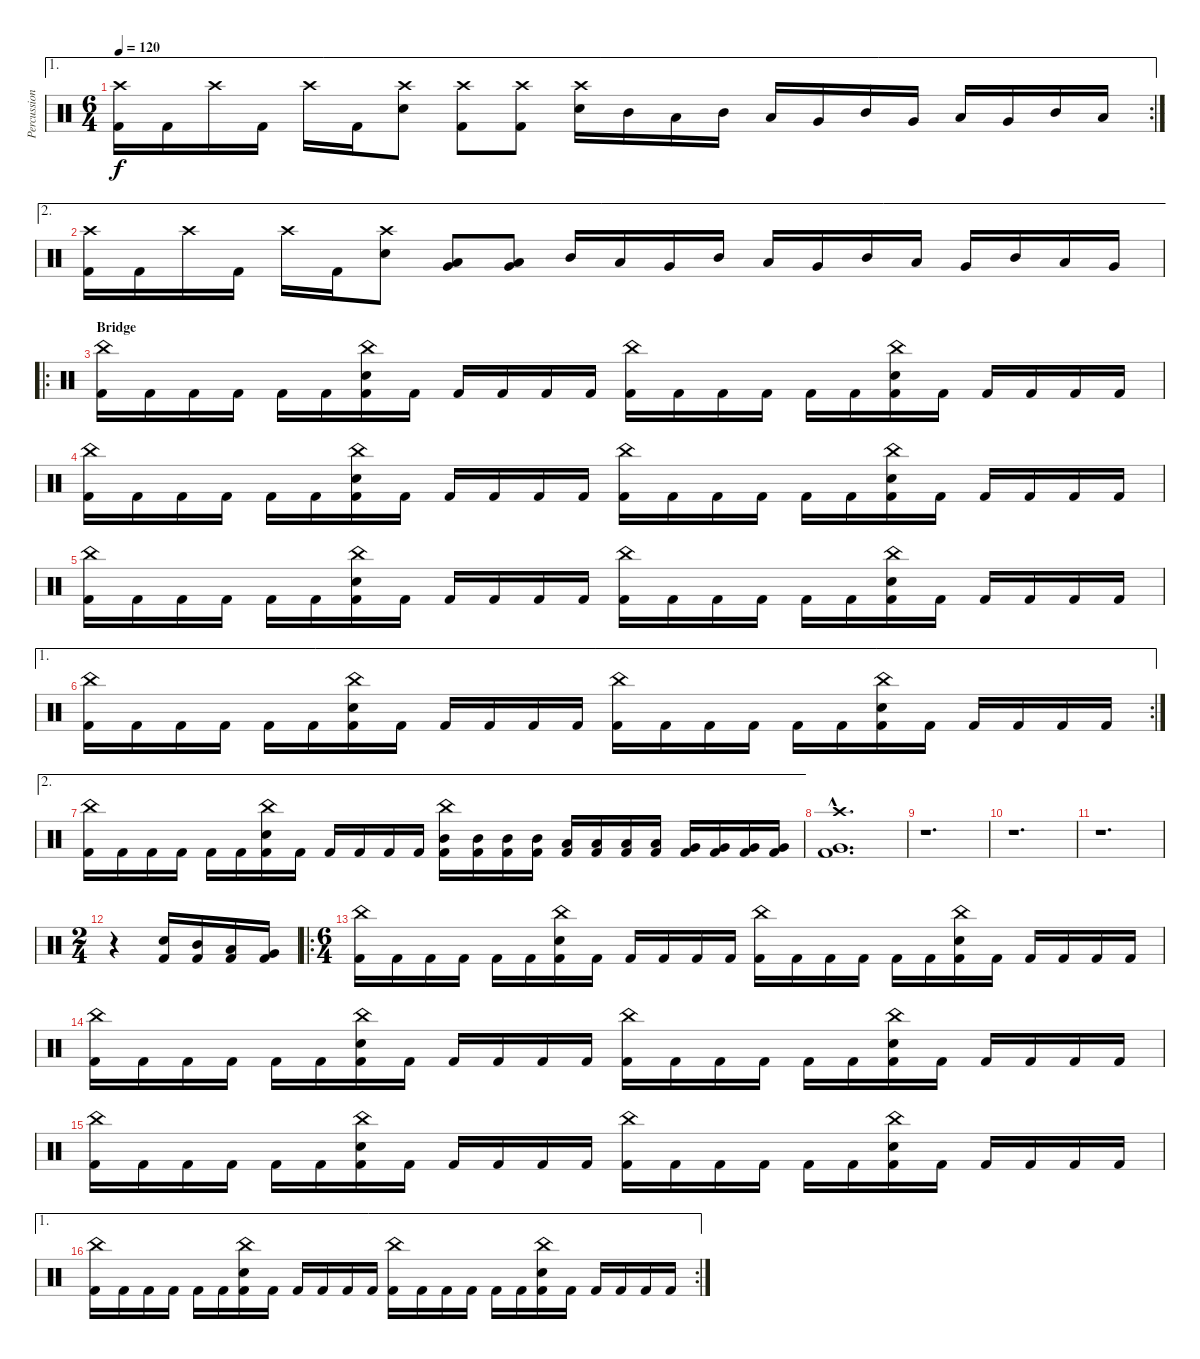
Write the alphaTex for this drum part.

\track ("Percussion" "Percussion") {instrument percussion}
\staff {score}
\articulation defaults
\ae 1
\rc 2
\ts (6 4)
\tempo 120
\clef neutral
\ks c
("Crash high (hit)" "Kick (hit) 2").16{dy f} "Kick (hit) 2".16 "Crash high (hit)".16 "Kick (hit) 2".16 "Crash high (hit)".16 "Kick (hit) 2".16 ("Crash high (hit)" "Snare (hit) 2").8 ("Crash high (hit)" "Kick (hit) 2").8 ("Crash high (hit)" "Kick (hit) 2").8 ("Crash high (hit)" "Snare (hit) 2").16 "Mid Tom (hit)".16 "Low Tom (hit)".16 "Mid Tom (hit)".16 "Low Tom (hit)".16 "Very Low Tom (hit)".16 "Mid Tom (hit)".16 "Very Low Tom (hit)".16 "Low Tom (hit)".16 "Very Low Tom (hit)".16 "Mid Tom (hit)".16 "Low Tom (hit)".16 |
\ae 2
("Crash high (hit)" "Kick (hit) 2").16 "Kick (hit) 2".16 "Crash high (hit)".16 "Kick (hit) 2".16 "Crash high (hit)".16 "Kick (hit) 2".16 ("Crash high (hit)" "Snare (hit) 2").8 ("Low Tom (hit)" "Very Low Tom (hit)").8 ("Low Tom (hit)" "Very Low Tom (hit)").8 "Mid Tom (hit)".16 "Low Tom (hit)".16 "Very Low Tom (hit)".16 "Mid Tom (hit)".16 "Low Tom (hit)".16 "Very Low Tom (hit)".16 "Mid Tom (hit)".16 "Low Tom (hit)".16 "Very Low Tom (hit)".16 "Mid Tom (hit)".16 "Low Tom (hit)".16 "Very Low Tom (hit)".16 |
\ro
\section ("" "Bridge")
("China (hit)" "Kick (hit) 2").16 "Kick (hit) 2".16 "Kick (hit) 2".16 "Kick (hit) 2".16 "Kick (hit) 2".16 "Kick (hit) 2".16 ("China (hit)" "Snare (hit) 2" "Kick (hit) 2").16 "Kick (hit) 2".16 "Kick (hit) 2".16 "Kick (hit) 2".16 "Kick (hit) 2".16 "Kick (hit) 2".16 ("China (hit)" "Kick (hit) 2").16 "Kick (hit) 2".16 "Kick (hit) 2".16 "Kick (hit) 2".16 "Kick (hit) 2".16 "Kick (hit) 2".16 ("China (hit)" "Snare (hit) 2" "Kick (hit) 2").16 "Kick (hit) 2".16 "Kick (hit) 2".16 "Kick (hit) 2".16 "Kick (hit) 2".16 "Kick (hit) 2".16 |
("China (hit)" "Kick (hit) 2").16 "Kick (hit) 2".16 "Kick (hit) 2".16 "Kick (hit) 2".16 "Kick (hit) 2".16 "Kick (hit) 2".16 ("China (hit)" "Snare (hit) 2" "Kick (hit) 2").16 "Kick (hit) 2".16 "Kick (hit) 2".16 "Kick (hit) 2".16 "Kick (hit) 2".16 "Kick (hit) 2".16 ("China (hit)" "Kick (hit) 2").16 "Kick (hit) 2".16 "Kick (hit) 2".16 "Kick (hit) 2".16 "Kick (hit) 2".16 "Kick (hit) 2".16 ("China (hit)" "Snare (hit) 2" "Kick (hit) 2").16 "Kick (hit) 2".16 "Kick (hit) 2".16 "Kick (hit) 2".16 "Kick (hit) 2".16 "Kick (hit) 2".16 |
("China (hit)" "Kick (hit) 2").16 "Kick (hit) 2".16 "Kick (hit) 2".16 "Kick (hit) 2".16 "Kick (hit) 2".16 "Kick (hit) 2".16 ("China (hit)" "Snare (hit) 2" "Kick (hit) 2").16 "Kick (hit) 2".16 "Kick (hit) 2".16 "Kick (hit) 2".16 "Kick (hit) 2".16 "Kick (hit) 2".16 ("China (hit)" "Kick (hit) 2").16 "Kick (hit) 2".16 "Kick (hit) 2".16 "Kick (hit) 2".16 "Kick (hit) 2".16 "Kick (hit) 2".16 ("China (hit)" "Snare (hit) 2" "Kick (hit) 2").16 "Kick (hit) 2".16 "Kick (hit) 2".16 "Kick (hit) 2".16 "Kick (hit) 2".16 "Kick (hit) 2".16 |
\ae 1
\rc 2
("China (hit)" "Kick (hit) 2").16 "Kick (hit) 2".16 "Kick (hit) 2".16 "Kick (hit) 2".16 "Kick (hit) 2".16 "Kick (hit) 2".16 ("China (hit)" "Snare (hit) 2" "Kick (hit) 2").16 "Kick (hit) 2".16 "Kick (hit) 2".16 "Kick (hit) 2".16 "Kick (hit) 2".16 "Kick (hit) 2".16 ("China (hit)" "Kick (hit) 2").16 "Kick (hit) 2".16 "Kick (hit) 2".16 "Kick (hit) 2".16 "Kick (hit) 2".16 "Kick (hit) 2".16 ("China (hit)" "Snare (hit) 2" "Kick (hit) 2").16 "Kick (hit) 2".16 "Kick (hit) 2".16 "Kick (hit) 2".16 "Kick (hit) 2".16 "Kick (hit) 2".16 |
\ae 2
("China (hit)" "Kick (hit) 2").16 "Kick (hit) 2".16 "Kick (hit) 2".16 "Kick (hit) 2".16 "Kick (hit) 2".16 "Kick (hit) 2".16 ("China (hit)" "Snare (hit) 2" "Kick (hit) 2").16 "Kick (hit) 2".16 "Kick (hit) 2".16 "Kick (hit) 2".16 "Kick (hit) 2".16 "Kick (hit) 2".16 ("China (hit)" "Mid Tom (hit)" "Kick (hit) 2").16 ("Mid Tom (hit)" "Kick (hit) 2").16 ("Mid Tom (hit)" "Kick (hit) 2").16 ("Mid Tom (hit)" "Kick (hit) 2").16 ("Low Tom (hit)" "Kick (hit) 2").16 ("Low Tom (hit)" "Kick (hit) 2").16 ("Low Tom (hit)" "Kick (hit) 2").16 ("Low Tom (hit)" "Kick (hit) 2").16 ("Very Low Tom (hit)" "Kick (hit) 2").16 ("Very Low Tom (hit)" "Kick (hit) 2").16 ("Very Low Tom (hit)" "Kick (hit) 2").16 ("Very Low Tom (hit)" "Kick (hit) 2").16 |
("Crash high (hit)"{hac} "Very Low Tom (hit)"{hac} "Kick (hit) 2"{hac}).1{d} |
r.1{d} |
r.1{d} |
r.1{d} |
\ts (2 4)
r.4 ("Snare (hit) 2" "Kick (hit) 2").16 ("Mid Tom (hit)" "Kick (hit) 2").16 ("Low Tom (hit)" "Kick (hit) 2").16 ("Very Low Tom (hit)" "Kick (hit) 2").16 |
\ro
\ts (6 4)
("China (hit)" "Kick (hit) 2").16 "Kick (hit) 2".16 "Kick (hit) 2".16 "Kick (hit) 2".16 "Kick (hit) 2".16 "Kick (hit) 2".16 ("China (hit)" "Snare (hit) 2" "Kick (hit) 2").16 "Kick (hit) 2".16 "Kick (hit) 2".16 "Kick (hit) 2".16 "Kick (hit) 2".16 "Kick (hit) 2".16 ("China (hit)" "Kick (hit) 2").16 "Kick (hit) 2".16 "Kick (hit) 2".16 "Kick (hit) 2".16 "Kick (hit) 2".16 "Kick (hit) 2".16 ("China (hit)" "Snare (hit) 2" "Kick (hit) 2").16 "Kick (hit) 2".16 "Kick (hit) 2".16 "Kick (hit) 2".16 "Kick (hit) 2".16 "Kick (hit) 2".16 |
("China (hit)" "Kick (hit) 2").16 "Kick (hit) 2".16 "Kick (hit) 2".16 "Kick (hit) 2".16 "Kick (hit) 2".16 "Kick (hit) 2".16 ("China (hit)" "Snare (hit) 2" "Kick (hit) 2").16 "Kick (hit) 2".16 "Kick (hit) 2".16 "Kick (hit) 2".16 "Kick (hit) 2".16 "Kick (hit) 2".16 ("China (hit)" "Kick (hit) 2").16 "Kick (hit) 2".16 "Kick (hit) 2".16 "Kick (hit) 2".16 "Kick (hit) 2".16 "Kick (hit) 2".16 ("China (hit)" "Snare (hit) 2" "Kick (hit) 2").16 "Kick (hit) 2".16 "Kick (hit) 2".16 "Kick (hit) 2".16 "Kick (hit) 2".16 "Kick (hit) 2".16 |
("China (hit)" "Kick (hit) 2").16 "Kick (hit) 2".16 "Kick (hit) 2".16 "Kick (hit) 2".16 "Kick (hit) 2".16 "Kick (hit) 2".16 ("China (hit)" "Snare (hit) 2" "Kick (hit) 2").16 "Kick (hit) 2".16 "Kick (hit) 2".16 "Kick (hit) 2".16 "Kick (hit) 2".16 "Kick (hit) 2".16 ("China (hit)" "Kick (hit) 2").16 "Kick (hit) 2".16 "Kick (hit) 2".16 "Kick (hit) 2".16 "Kick (hit) 2".16 "Kick (hit) 2".16 ("China (hit)" "Snare (hit) 2" "Kick (hit) 2").16 "Kick (hit) 2".16 "Kick (hit) 2".16 "Kick (hit) 2".16 "Kick (hit) 2".16 "Kick (hit) 2".16 |
\ae 1
\rc 2
("China (hit)" "Kick (hit) 2").16 "Kick (hit) 2".16 "Kick (hit) 2".16 "Kick (hit) 2".16 "Kick (hit) 2".16 "Kick (hit) 2".16 ("China (hit)" "Snare (hit) 2" "Kick (hit) 2").16 "Kick (hit) 2".16 "Kick (hit) 2".16 "Kick (hit) 2".16 "Kick (hit) 2".16 "Kick (hit) 2".16 ("China (hit)" "Kick (hit) 2").16 "Kick (hit) 2".16 "Kick (hit) 2".16 "Kick (hit) 2".16 "Kick (hit) 2".16 "Kick (hit) 2".16 ("China (hit)" "Snare (hit) 2" "Kick (hit) 2").16 "Kick (hit) 2".16 "Kick (hit) 2".16 "Kick (hit) 2".16 "Kick (hit) 2".16 "Kick (hit) 2".16
